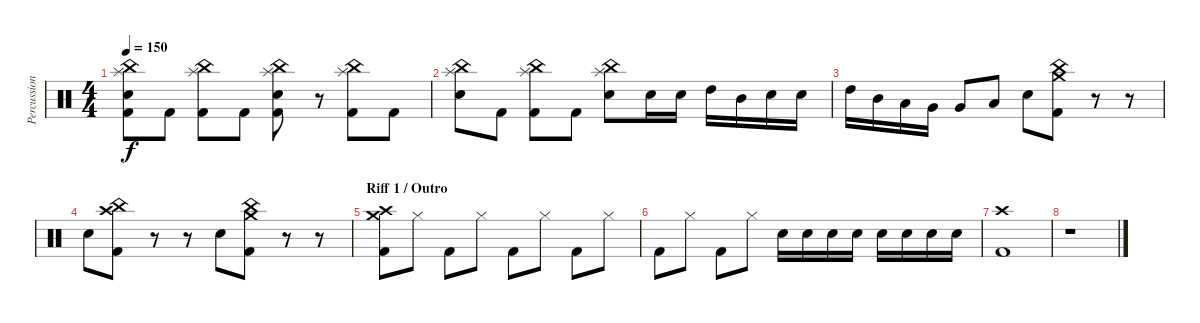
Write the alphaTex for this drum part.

\track ("Percussion" "Percussion") {instrument percussion}
\staff {score}
\articulation defaults
\ts (4 4)
\tempo 150
\clef neutral
\ks c
("Splash (hit)" "China (hit)" "Electric Snare (hit)" "Kick (hit) 2").8{dy f} "Kick (hit) 2".8 ("Splash (hit)" "China (hit)" "Kick (hit) 2").8 "Kick (hit) 2".8 ("Splash (hit)" "China (hit)" "Electric Snare (hit)" "Kick (hit) 2").8 r.8 ("Splash (hit)" "China (hit)" "Kick (hit) 2").8 "Kick (hit) 2".8 |
("Splash (hit)" "China (hit)" "Electric Snare (hit)").8 "Kick (hit) 2".8 ("Splash (hit)" "China (hit)" "Kick (hit) 2").8 "Kick (hit) 2".8 ("Splash (hit)" "China (hit)" "Electric Snare (hit)").8 "Electric Snare (hit)".16 "Electric Snare (hit)".16 "High Tom (hit)".16 "Mid Tom (hit)".16 "Electric Snare (hit)".16 "Electric Snare (hit)".16 |
"High Tom (hit)".16 "Mid Tom (hit)".16 "Low Tom (hit)".16 "Very Low Tom (hit)".16 "Very Low Tom (hit)".8 "Low Floor Tom (hit)".8 "Electric Snare (hit)".8 ("China (hit)" "Crash medium (hit)" "Kick (hit) 2").8 r.8 r.8 |
"Electric Snare (hit)".8 ("China (hit)" "Crash high (hit)" "Kick (hit) 2").8 r.8 r.8 "Electric Snare (hit)".8 ("China (hit)" "Crash medium (hit)" "Kick (hit) 2").8 r.8 r.8 |
\section ("" "Riff 1 / Outro")
("Crash medium (hit)" "Crash high (hit)" "Kick (hit) 2").8 "Hi-Hat (closed)".8 "Kick (hit) 2".8 "Hi-Hat (closed)".8 "Kick (hit) 2".8 "Hi-Hat (closed)".8 "Kick (hit) 2".8 "Hi-Hat (closed)".8 |
"Kick (hit) 2".8 "Hi-Hat (closed)".8 "Kick (hit) 2".8 "Hi-Hat (closed)".8 "Electric Snare (hit)".16 "Electric Snare (hit)".16 "Electric Snare (hit)".16 "Electric Snare (hit)".16 "Electric Snare (hit)".16 "Electric Snare (hit)".16 "Electric Snare (hit)".16 "Electric Snare (hit)".16 |
("Crash high (hit)" "Kick (hit) 2").1 |
r.1
